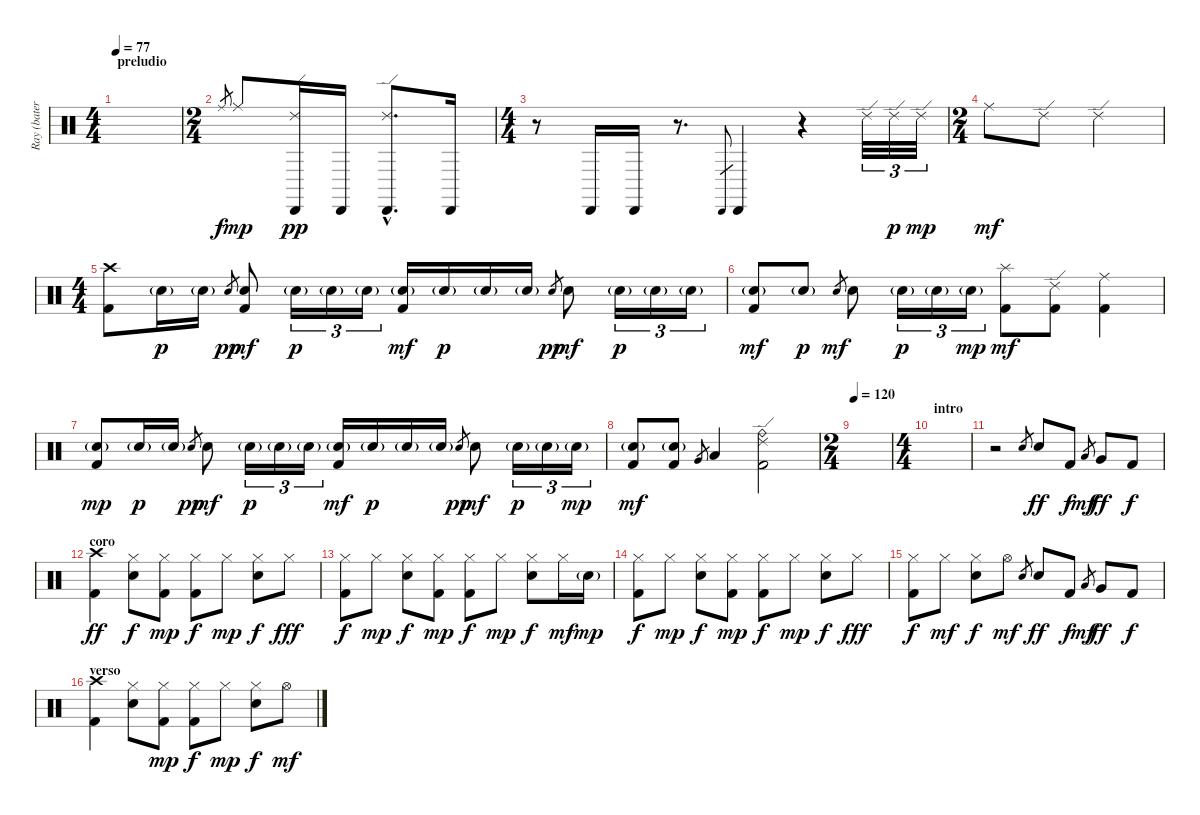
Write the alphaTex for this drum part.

\track ("Ray (batería)" "Ray (bater") {instrument percussion}
\staff {score}
\articulation defaults
\ts (4 4)
\section ("" "preludio")
\tempo 77
\clef neutral
\ks c
|
\ts (2 4)
"Ride (middle)".8{gr} "Ride (middle)".8{dy mp} ("Ride (edge) 2" "Cabasa (hit)").16{dy pp} "Cabasa (hit)".16 ("Ride (edge) 2"{hac} "Cabasa (hit)"{hac}).8{d} "Cabasa (hit)".16 |
\ts (4 4)
r.8 "Cabasa (hit)".16 "Cabasa (hit)".16 r.8{d} "Cabasa (hit)".8{gr} "Cabasa (hit)".4 r.4 "Ride (edge) 2".32{tu (3 2)} "Ride (edge) 2".32{tu (3 2) dy p} "Ride (edge) 2".32{tu (3 2) dy mp} |
\ts (2 4)
"Ride (middle)".8{dy mf} "Ride (edge) 2".8 "Ride (edge) 2".4 |
\ts (4 4)
("Crash high (hit)" "Kick (hit) 2").8 "Snare (hit) 2"{g}.16{dy p} "Snare (hit) 2"{g}.16 "Snare (hit) 2".8{gr dy pp} ("Snare (hit) 2" "Kick (hit) 2").8{dy mf} "Snare (hit) 2"{g}.16{tu (3 2) dy p} "Snare (hit) 2"{g}.16{tu (3 2)} "Snare (hit) 2"{g}.16{tu (3 2)} ("Snare (hit) 2"{g} "Kick (hit) 2").16{dy mf} "Snare (hit) 2"{g}.16{dy p} "Snare (hit) 2"{g}.16 "Snare (hit) 2"{g}.16 "Snare (hit) 2".8{gr dy pp} "Snare (hit) 2".8{dy mf} "Snare (hit) 2"{g}.16{tu (3 2) dy p} "Snare (hit) 2"{g}.16{tu (3 2)} "Snare (hit) 2"{g}.16{tu (3 2)} |
("Snare (hit) 2"{g} "Kick (hit) 2").8{dy mf} "Snare (hit) 2"{g}.8{dy p} "Snare (hit) 2".8{gr dy mf} "Snare (hit) 2".8 "Snare (hit) 2"{g}.16{tu (3 2) dy p} "Snare (hit) 2"{g}.16{tu (3 2)} "Snare (hit) 2"{g}.16{tu (3 2) dy mp} ("Splash (hit)" "Kick (hit) 2").8{dy mf} ("Ride (edge) 2" "Kick (hit) 2").8 ("Ride (middle)" "Kick (hit) 2").4 |
("Snare (hit) 2"{g} "Kick (hit) 2").8{dy mp} "Snare (hit) 2"{g}.16{dy p} "Snare (hit) 2"{g}.16 "Snare (hit) 2".8{gr dy pp} "Snare (hit) 2".8{dy mf} "Snare (hit) 2"{g}.16{tu (3 2) dy p} "Snare (hit) 2"{g}.16{tu (3 2)} "Snare (hit) 2"{g}.16{tu (3 2)} ("Snare (hit) 2"{g} "Kick (hit) 2").16{dy mf} "Snare (hit) 2"{g}.16{dy p} "Snare (hit) 2"{g}.16 "Snare (hit) 2"{g}.16 "Snare (hit) 2".8{gr dy pp} "Snare (hit) 2".8{dy mf} "Snare (hit) 2"{g}.16{tu (3 2) dy p} "Snare (hit) 2"{g}.16{tu (3 2)} "Snare (hit) 2"{g}.16{tu (3 2) dy mp} |
("Snare (hit) 2"{g} "Kick (hit) 2").8{dy mf} ("Snare (hit) 2"{g} "Kick (hit) 2").8 "Very Low Tom (hit)".8{gr} "Low Tom (hit)".4 ("Ride (bell)" "Ride (edge) 2" "Kick (hit) 2").2 |
\ts (2 4)
\tempo 120
|
\ts (4 4)
\section ("" "intro")
|
r.2 "Snare (hit) 2".8{gr} "Snare (hit) 2".8{dy ff} "Kick (hit) 2".8{dy f} "Low Floor Tom (hit)".8{gr dy mf} "Very Low Tom (hit)".8{dy ff} "Kick (hit) 2".8{dy f} |
\section ("" "coro")
("Crash high (hit)" "Kick (hit) 2").4{dy ff} ("Hi-Hat (closed)" "Snare (hit) 2").8{dy f} ("Hi-Hat (closed)" "Kick (hit) 2").8{dy mp} ("Hi-Hat (closed)" "Kick (hit) 2").8{dy f} "Hi-Hat (closed)".8{dy mp} ("Hi-Hat (closed)" "Snare (hit) 2").8{dy f} "Hi-Hat (closed)".8{dy fff} |
("Hi-Hat (closed)" "Kick (hit) 2").8{dy f} "Hi-Hat (closed)".8{dy mp} ("Hi-Hat (closed)" "Snare (hit) 2").8{dy f} ("Hi-Hat (closed)" "Kick (hit) 2").8{dy mp} ("Hi-Hat (closed)" "Kick (hit) 2").8{dy f} "Hi-Hat (closed)".8{dy mp} ("Hi-Hat (closed)" "Snare (hit) 2").8{dy f} "Hi-Hat (closed)".16{dy mf} "Snare (hit) 2"{g}.16{dy mp} |
("Hi-Hat (closed)" "Kick (hit) 2").8{dy f} "Hi-Hat (closed)".8{dy mp} ("Hi-Hat (closed)" "Snare (hit) 2").8{dy f} ("Hi-Hat (closed)" "Kick (hit) 2").8{dy mp} ("Hi-Hat (closed)" "Kick (hit) 2").8{dy f} "Hi-Hat (closed)".8{dy mp} ("Hi-Hat (closed)" "Snare (hit) 2").8{dy f} "Hi-Hat (closed)".8{dy fff} |
("Hi-Hat (closed)" "Kick (hit) 2").8{dy f} "Hi-Hat (closed)".8{dy mf} ("Hi-Hat (closed)" "Snare (hit) 2").8{dy f} "Hi-Hat (open)".8{dy mf} "Snare (hit) 2".8{gr} "Snare (hit) 2".8{dy ff} "Kick (hit) 2".8{dy f} "Low Floor Tom (hit)".8{gr dy mf} "Very Low Tom (hit)".8{dy ff} "Kick (hit) 2".8{dy f} |
\section ("" "verso")
("Crash high (hit)" "Kick (hit) 2").4 ("Hi-Hat (closed)" "Snare (hit) 2").8 ("Hi-Hat (closed)" "Kick (hit) 2").8{dy mp} ("Hi-Hat (closed)" "Kick (hit) 2").8{dy f} "Hi-Hat (closed)".8{dy mp} ("Hi-Hat (closed)" "Snare (hit) 2").8{dy f} "Hi-Hat (open)".8{dy mf}
